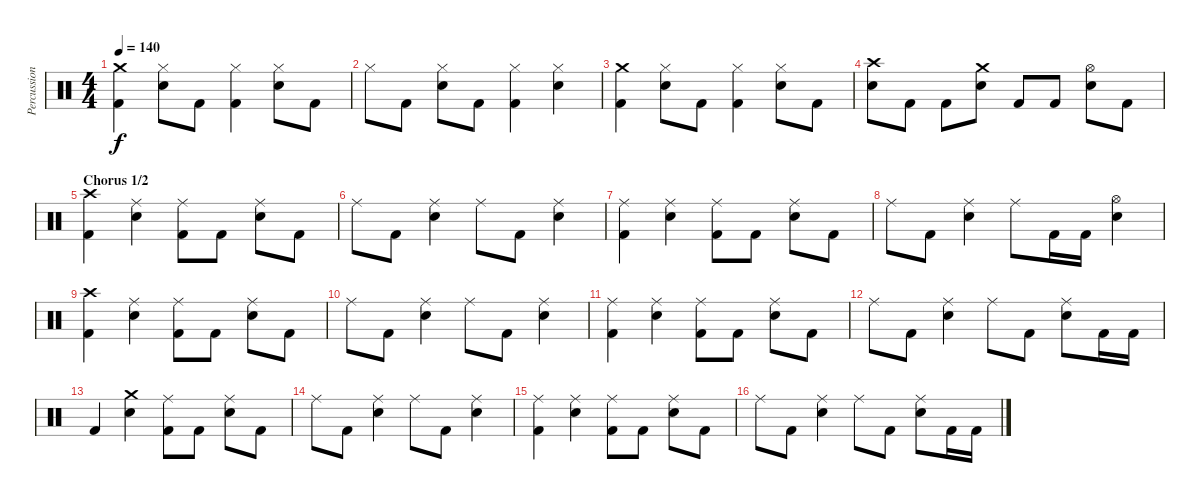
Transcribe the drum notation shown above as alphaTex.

\track ("Percussion" "Percussion") {instrument percussion}
\staff {score}
\articulation defaults
\ts (4 4)
\tempo 140
\clef neutral
\ks c
("Kick (hit) 2" "Crash medium (hit)").4{dy f} ("Snare (hit) 2" "Hi-Hat (closed)").8 "Kick (hit) 2".8 ("Kick (hit) 2" "Hi-Hat (closed)").4 ("Snare (hit) 2" "Hi-Hat (closed)").8 "Kick (hit) 2".8 |
"Hi-Hat (closed)".8 "Kick (hit) 2".8 ("Snare (hit) 2" "Hi-Hat (closed)").8 "Kick (hit) 2".8 ("Kick (hit) 2" "Hi-Hat (closed)").4 ("Snare (hit) 2" "Hi-Hat (closed)").4 |
("Kick (hit) 2" "Crash medium (hit)").4 ("Snare (hit) 2" "Hi-Hat (closed)").8 "Kick (hit) 2".8 ("Kick (hit) 2" "Hi-Hat (closed)").4 ("Snare (hit) 2" "Hi-Hat (closed)").8 "Kick (hit) 2".8 |
("Snare (hit) 2" "Crash high (hit)").8 "Kick (hit) 2".8 "Kick (hit) 2".8 ("Snare (hit) 2" "Crash medium (hit)").8 "Kick (hit) 2".8 "Kick (hit) 2".8 ("Snare (hit) 2" "Hi-Hat (open)").8 "Kick (hit) 2".8 |
\section ("" "Chorus 1/2")
("Kick (hit) 2" "Crash high (hit)").4 ("Snare (hit) 2" "Ride (middle)").4 ("Kick (hit) 2" "Ride (middle)").8 "Kick (hit) 2".8 ("Snare (hit) 2" "Ride (middle)").8 "Kick (hit) 2".8 |
"Ride (middle)".8 "Kick (hit) 2".8 ("Snare (hit) 2" "Ride (middle)").4 "Ride (middle)".8 "Kick (hit) 2".8 ("Snare (hit) 2" "Ride (middle)").4 |
("Kick (hit) 2" "Ride (middle)").4 ("Snare (hit) 2" "Ride (middle)").4 ("Kick (hit) 2" "Ride (middle)").8 "Kick (hit) 2".8 ("Snare (hit) 2" "Ride (middle)").8 "Kick (hit) 2".8 |
"Ride (middle)".8 "Kick (hit) 2".8 ("Snare (hit) 2" "Ride (middle)").4 "Ride (middle)".8 "Kick (hit) 2".16 "Kick (hit) 2".16 ("Snare (hit) 2" "Hi-Hat (open)").4 |
("Kick (hit) 2" "Crash high (hit)").4 ("Snare (hit) 2" "Ride (middle)").4 ("Kick (hit) 2" "Ride (middle)").8 "Kick (hit) 2".8 ("Snare (hit) 2" "Ride (middle)").8 "Kick (hit) 2".8 |
"Ride (middle)".8 "Kick (hit) 2".8 ("Snare (hit) 2" "Ride (middle)").4 "Ride (middle)".8 "Kick (hit) 2".8 ("Snare (hit) 2" "Ride (middle)").4 |
("Kick (hit) 2" "Ride (middle)").4 ("Snare (hit) 2" "Ride (middle)").4 ("Kick (hit) 2" "Ride (middle)").8 "Kick (hit) 2".8 ("Snare (hit) 2" "Ride (middle)").8 "Kick (hit) 2".8 |
"Ride (middle)".8 "Kick (hit) 2".8 ("Snare (hit) 2" "Ride (middle)").4 "Ride (middle)".8 "Kick (hit) 2".8 ("Snare (hit) 2" "Ride (middle)").8 "Kick (hit) 2".16 "Kick (hit) 2".16 |
"Kick (hit) 2".4 ("Snare (hit) 2" "Crash medium (hit)").4 ("Kick (hit) 2" "Ride (middle)").8 "Kick (hit) 2".8 ("Snare (hit) 2" "Ride (middle)").8 "Kick (hit) 2".8 |
"Ride (middle)".8 "Kick (hit) 2".8 ("Snare (hit) 2" "Ride (middle)").4 "Ride (middle)".8 "Kick (hit) 2".8 ("Snare (hit) 2" "Ride (middle)").4 |
("Kick (hit) 2" "Ride (middle)").4 ("Snare (hit) 2" "Ride (middle)").4 ("Kick (hit) 2" "Ride (middle)").8 "Kick (hit) 2".8 ("Snare (hit) 2" "Ride (middle)").8 "Kick (hit) 2".8 |
"Ride (middle)".8 "Kick (hit) 2".8 ("Snare (hit) 2" "Ride (middle)").4 "Ride (middle)".8 "Kick (hit) 2".8 ("Snare (hit) 2" "Ride (middle)").8 "Kick (hit) 2".16 "Kick (hit) 2".16
